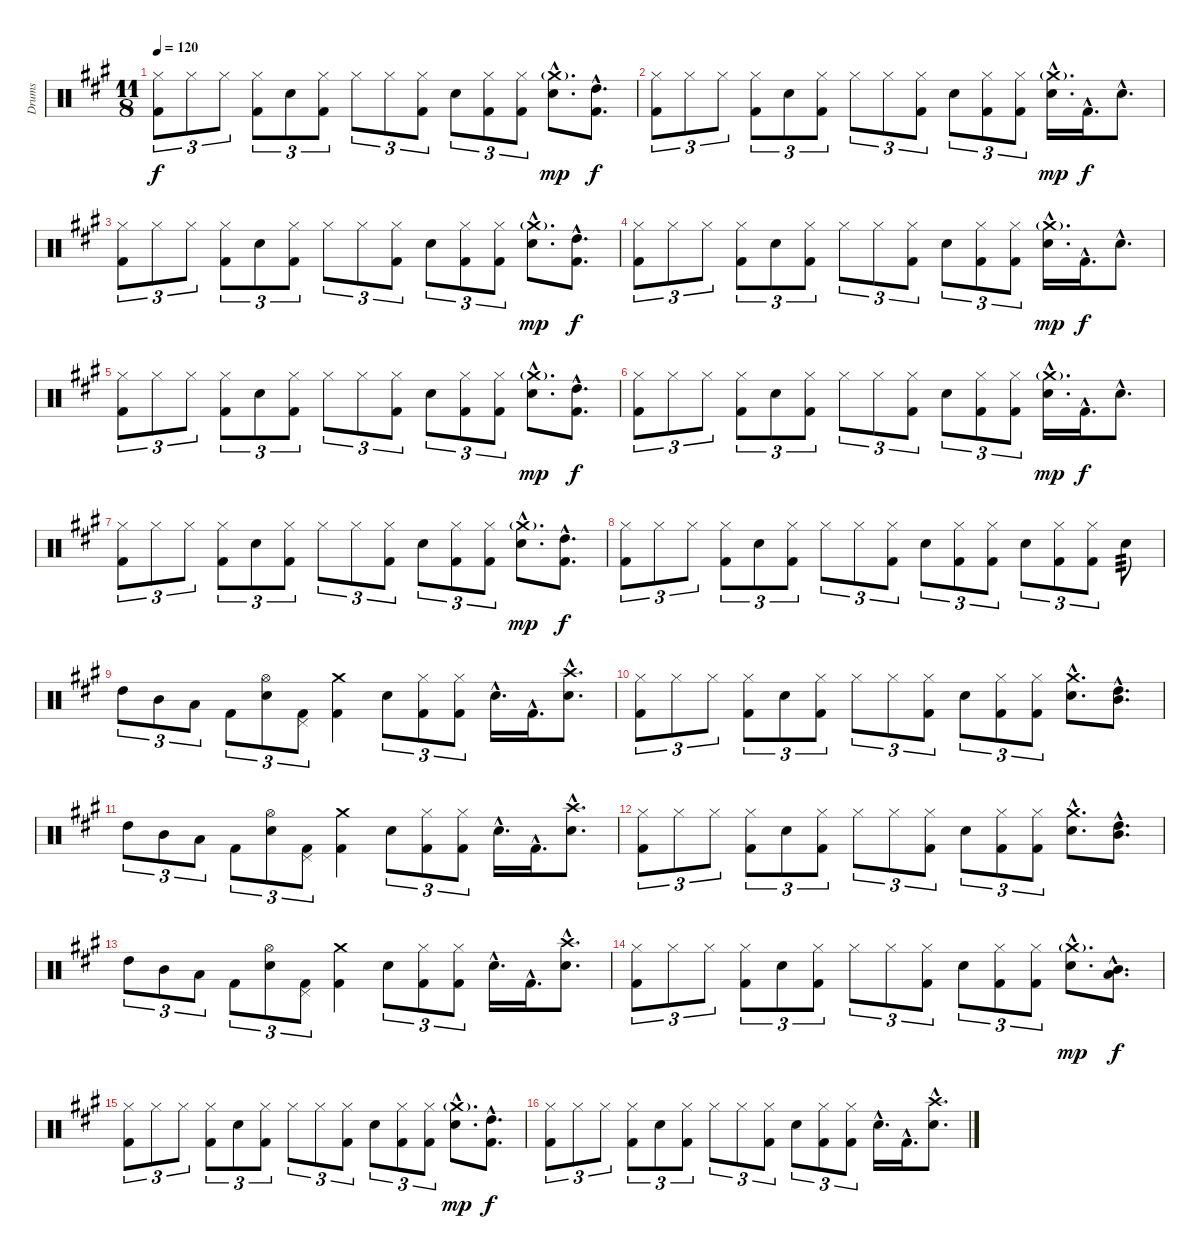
\track ("Drums" "Drums") {instrument percussion}
\staff {score}
\articulation defaults
\ts (11 8)
\tempo 120
\clef neutral
\ks a
("Hi-Hat (closed)" "Kick (hit) 2").8{tu (3 2) dy f} "Hi-Hat (closed)".8{tu (3 2)} "Hi-Hat (closed)".8{tu (3 2)} ("Hi-Hat (closed)" "Kick (hit) 2").8{tu (3 2)} "Electric Snare (hit)".8{tu (3 2)} ("Hi-Hat (closed)" "Kick (hit) 2").8{tu (3 2)} "Hi-Hat (closed)".8{tu (3 2)} "Hi-Hat (closed)".8{tu (3 2)} ("Hi-Hat (closed)" "Kick (hit) 2").8{tu (3 2)} "Electric Snare (hit)".8{tu (3 2)} ("Hi-Hat (closed)" "Kick (hit) 2").8{tu (3 2)} ("Hi-Hat (closed)" "Kick (hit) 2").8{tu (3 2)} ("Crash medium (hit)"{g hac} "Electric Snare (hit)"{hac}).8{d dy mp} ("High Tom (hit)"{hac} "Kick (hit) 2"{hac}).8{d dy f} |
("Hi-Hat (closed)" "Kick (hit) 2").8{tu (3 2)} "Hi-Hat (closed)".8{tu (3 2)} "Hi-Hat (closed)".8{tu (3 2)} ("Hi-Hat (closed)" "Kick (hit) 2").8{tu (3 2)} "Electric Snare (hit)".8{tu (3 2)} ("Hi-Hat (closed)" "Kick (hit) 2").8{tu (3 2)} "Hi-Hat (closed)".8{tu (3 2)} "Hi-Hat (closed)".8{tu (3 2)} ("Hi-Hat (closed)" "Kick (hit) 2").8{tu (3 2)} "Electric Snare (hit)".8{tu (3 2)} ("Hi-Hat (closed)" "Kick (hit) 2").8{tu (3 2)} ("Hi-Hat (closed)" "Kick (hit) 2").8{tu (3 2)} ("Crash medium (hit)"{g hac} "Electric Snare (hit)"{hac}).16{d dy mp} "Kick (hit) 2"{hac}.16{d dy f} "Electric Snare (hit)"{hac}.8{d} |
("Hi-Hat (closed)" "Kick (hit) 2").8{tu (3 2)} "Hi-Hat (closed)".8{tu (3 2)} "Hi-Hat (closed)".8{tu (3 2)} ("Hi-Hat (closed)" "Kick (hit) 2").8{tu (3 2)} "Electric Snare (hit)".8{tu (3 2)} ("Hi-Hat (closed)" "Kick (hit) 2").8{tu (3 2)} "Hi-Hat (closed)".8{tu (3 2)} "Hi-Hat (closed)".8{tu (3 2)} ("Hi-Hat (closed)" "Kick (hit) 2").8{tu (3 2)} "Electric Snare (hit)".8{tu (3 2)} ("Hi-Hat (closed)" "Kick (hit) 2").8{tu (3 2)} ("Hi-Hat (closed)" "Kick (hit) 2").8{tu (3 2)} ("Crash medium (hit)"{g hac} "Electric Snare (hit)"{hac}).8{d dy mp} ("High Tom (hit)"{hac} "Kick (hit) 2"{hac}).8{d dy f} |
("Hi-Hat (closed)" "Kick (hit) 2").8{tu (3 2)} "Hi-Hat (closed)".8{tu (3 2)} "Hi-Hat (closed)".8{tu (3 2)} ("Hi-Hat (closed)" "Kick (hit) 2").8{tu (3 2)} "Electric Snare (hit)".8{tu (3 2)} ("Hi-Hat (closed)" "Kick (hit) 2").8{tu (3 2)} "Hi-Hat (closed)".8{tu (3 2)} "Hi-Hat (closed)".8{tu (3 2)} ("Hi-Hat (closed)" "Kick (hit) 2").8{tu (3 2)} "Electric Snare (hit)".8{tu (3 2)} ("Hi-Hat (closed)" "Kick (hit) 2").8{tu (3 2)} ("Hi-Hat (closed)" "Kick (hit) 2").8{tu (3 2)} ("Crash medium (hit)"{g hac} "Electric Snare (hit)"{hac}).16{d dy mp} "Kick (hit) 2"{hac}.16{d dy f} "Electric Snare (hit)"{hac}.8{d} |
("Hi-Hat (closed)" "Kick (hit) 2").8{tu (3 2)} "Hi-Hat (closed)".8{tu (3 2)} "Hi-Hat (closed)".8{tu (3 2)} ("Hi-Hat (closed)" "Kick (hit) 2").8{tu (3 2)} "Electric Snare (hit)".8{tu (3 2)} ("Hi-Hat (closed)" "Kick (hit) 2").8{tu (3 2)} "Hi-Hat (closed)".8{tu (3 2)} "Hi-Hat (closed)".8{tu (3 2)} ("Hi-Hat (closed)" "Kick (hit) 2").8{tu (3 2)} "Electric Snare (hit)".8{tu (3 2)} ("Hi-Hat (closed)" "Kick (hit) 2").8{tu (3 2)} ("Hi-Hat (closed)" "Kick (hit) 2").8{tu (3 2)} ("Crash medium (hit)"{g hac} "Electric Snare (hit)"{hac}).8{d dy mp} ("High Tom (hit)"{hac} "Kick (hit) 2"{hac}).8{d dy f} |
("Hi-Hat (closed)" "Kick (hit) 2").8{tu (3 2)} "Hi-Hat (closed)".8{tu (3 2)} "Hi-Hat (closed)".8{tu (3 2)} ("Hi-Hat (closed)" "Kick (hit) 2").8{tu (3 2)} "Electric Snare (hit)".8{tu (3 2)} ("Hi-Hat (closed)" "Kick (hit) 2").8{tu (3 2)} "Hi-Hat (closed)".8{tu (3 2)} "Hi-Hat (closed)".8{tu (3 2)} ("Hi-Hat (closed)" "Kick (hit) 2").8{tu (3 2)} "Electric Snare (hit)".8{tu (3 2)} ("Hi-Hat (closed)" "Kick (hit) 2").8{tu (3 2)} ("Hi-Hat (closed)" "Kick (hit) 2").8{tu (3 2)} ("Crash medium (hit)"{g hac} "Electric Snare (hit)"{hac}).16{d dy mp} "Kick (hit) 2"{hac}.16{d dy f} "Electric Snare (hit)"{hac}.8{d} |
("Hi-Hat (closed)" "Kick (hit) 2").8{tu (3 2)} "Hi-Hat (closed)".8{tu (3 2)} "Hi-Hat (closed)".8{tu (3 2)} ("Hi-Hat (closed)" "Kick (hit) 2").8{tu (3 2)} "Electric Snare (hit)".8{tu (3 2)} ("Hi-Hat (closed)" "Kick (hit) 2").8{tu (3 2)} "Hi-Hat (closed)".8{tu (3 2)} "Hi-Hat (closed)".8{tu (3 2)} ("Hi-Hat (closed)" "Kick (hit) 2").8{tu (3 2)} "Electric Snare (hit)".8{tu (3 2)} ("Hi-Hat (closed)" "Kick (hit) 2").8{tu (3 2)} ("Hi-Hat (closed)" "Kick (hit) 2").8{tu (3 2)} ("Crash medium (hit)"{g hac} "Electric Snare (hit)"{hac}).8{d dy mp} ("High Tom (hit)"{hac} "Kick (hit) 2"{hac}).8{d dy f} |
("Hi-Hat (closed)" "Kick (hit) 2").8{tu (3 2)} "Hi-Hat (closed)".8{tu (3 2)} "Hi-Hat (closed)".8{tu (3 2)} ("Hi-Hat (closed)" "Kick (hit) 2").8{tu (3 2)} "Electric Snare (hit)".8{tu (3 2)} ("Hi-Hat (closed)" "Kick (hit) 2").8{tu (3 2)} "Hi-Hat (closed)".8{tu (3 2)} "Hi-Hat (closed)".8{tu (3 2)} ("Hi-Hat (closed)" "Kick (hit) 2").8{tu (3 2)} "Electric Snare (hit)".8{tu (3 2)} ("Hi-Hat (closed)" "Kick (hit) 2").8{tu (3 2)} ("Hi-Hat (closed)" "Kick (hit) 2").8{tu (3 2)} "Electric Snare (hit)".8{tu (3 2)} ("Hi-Hat (closed)" "Kick (hit) 2").8{tu (3 2)} ("Hi-Hat (closed)" "Kick (hit) 2").8{tu (3 2)} "Electric Snare (hit)".8{tp 3} |
"High Tom (hit)".8{tu (3 2)} "Mid Tom (hit)".8{tu (3 2)} "Low Tom (hit)".8{tu (3 2)} "Kick (hit) 2".8{tu (3 2)} ("Hi-Hat (open)" "Electric Snare (hit)").8{tu (3 2)} ("Pedal Hi-Hat (hit)" "Kick (hit) 2").8{tu (3 2)} ("Crash medium (hit)" "Kick (hit) 2").4 "Electric Snare (hit)".8{tu (3 2)} ("Hi-Hat (closed)" "Kick (hit) 2").8{tu (3 2)} ("Hi-Hat (closed)" "Kick (hit) 2").8{tu (3 2)} "Electric Snare (hit)"{hac}.16{d} "Kick (hit) 2"{hac}.16{d} ("Crash high (hit)"{hac} "Electric Snare (hit)"{hac}).8{d} |
("Hi-Hat (closed)" "Kick (hit) 2").8{tu (3 2)} "Hi-Hat (closed)".8{tu (3 2)} "Hi-Hat (closed)".8{tu (3 2)} ("Hi-Hat (closed)" "Kick (hit) 2").8{tu (3 2)} "Electric Snare (hit)".8{tu (3 2)} ("Hi-Hat (closed)" "Kick (hit) 2").8{tu (3 2)} "Hi-Hat (closed)".8{tu (3 2)} "Hi-Hat (closed)".8{tu (3 2)} ("Hi-Hat (closed)" "Kick (hit) 2").8{tu (3 2)} "Electric Snare (hit)".8{tu (3 2)} ("Hi-Hat (closed)" "Kick (hit) 2").8{tu (3 2)} ("Hi-Hat (closed)" "Kick (hit) 2").8{tu (3 2)} ("Crash medium (hit)"{hac} "Electric Snare (hit)"{hac}).8{d} ("High Tom (hit)"{hac} "Mid Tom (hit)"{hac}).8{d} |
"High Tom (hit)".8{tu (3 2)} "Mid Tom (hit)".8{tu (3 2)} "Low Tom (hit)".8{tu (3 2)} "Kick (hit) 2".8{tu (3 2)} ("Hi-Hat (open)" "Electric Snare (hit)").8{tu (3 2)} ("Pedal Hi-Hat (hit)" "Kick (hit) 2").8{tu (3 2)} ("Crash medium (hit)" "Kick (hit) 2").4 "Electric Snare (hit)".8{tu (3 2)} ("Hi-Hat (closed)" "Kick (hit) 2").8{tu (3 2)} ("Hi-Hat (closed)" "Kick (hit) 2").8{tu (3 2)} "Electric Snare (hit)"{hac}.16{d} "Kick (hit) 2"{hac}.16{d} ("Crash high (hit)"{hac} "Electric Snare (hit)"{hac}).8{d} |
("Hi-Hat (closed)" "Kick (hit) 2").8{tu (3 2)} "Hi-Hat (closed)".8{tu (3 2)} "Hi-Hat (closed)".8{tu (3 2)} ("Hi-Hat (closed)" "Kick (hit) 2").8{tu (3 2)} "Electric Snare (hit)".8{tu (3 2)} ("Hi-Hat (closed)" "Kick (hit) 2").8{tu (3 2)} "Hi-Hat (closed)".8{tu (3 2)} "Hi-Hat (closed)".8{tu (3 2)} ("Hi-Hat (closed)" "Kick (hit) 2").8{tu (3 2)} "Electric Snare (hit)".8{tu (3 2)} ("Hi-Hat (closed)" "Kick (hit) 2").8{tu (3 2)} ("Hi-Hat (closed)" "Kick (hit) 2").8{tu (3 2)} ("Crash medium (hit)"{hac} "Electric Snare (hit)"{hac}).8{d} ("High Tom (hit)"{hac} "Mid Tom (hit)"{hac}).8{d} |
"High Tom (hit)".8{tu (3 2)} "Mid Tom (hit)".8{tu (3 2)} "Low Tom (hit)".8{tu (3 2)} "Kick (hit) 2".8{tu (3 2)} ("Hi-Hat (open)" "Electric Snare (hit)").8{tu (3 2)} ("Pedal Hi-Hat (hit)" "Kick (hit) 2").8{tu (3 2)} ("Crash medium (hit)" "Kick (hit) 2").4 "Electric Snare (hit)".8{tu (3 2)} ("Hi-Hat (closed)" "Kick (hit) 2").8{tu (3 2)} ("Hi-Hat (closed)" "Kick (hit) 2").8{tu (3 2)} "Electric Snare (hit)"{hac}.16{d} "Kick (hit) 2"{hac}.16{d} ("Crash high (hit)"{hac} "Electric Snare (hit)"{hac}).8{d} |
("Hi-Hat (closed)" "Kick (hit) 2").8{tu (3 2)} "Hi-Hat (closed)".8{tu (3 2)} "Hi-Hat (closed)".8{tu (3 2)} ("Hi-Hat (closed)" "Kick (hit) 2").8{tu (3 2)} "Electric Snare (hit)".8{tu (3 2)} ("Hi-Hat (closed)" "Kick (hit) 2").8{tu (3 2)} "Hi-Hat (closed)".8{tu (3 2)} "Hi-Hat (closed)".8{tu (3 2)} ("Hi-Hat (closed)" "Kick (hit) 2").8{tu (3 2)} "Electric Snare (hit)".8{tu (3 2)} ("Hi-Hat (closed)" "Kick (hit) 2").8{tu (3 2)} ("Hi-Hat (closed)" "Kick (hit) 2").8{tu (3 2)} ("Crash medium (hit)"{g hac} "Electric Snare (hit)"{hac}).8{d dy mp} ("Mid Tom (hit)"{hac} "Low Tom (hit)"{hac}).8{d dy f} |
("Hi-Hat (closed)" "Kick (hit) 2").8{tu (3 2)} "Hi-Hat (closed)".8{tu (3 2)} "Hi-Hat (closed)".8{tu (3 2)} ("Hi-Hat (closed)" "Kick (hit) 2").8{tu (3 2)} "Electric Snare (hit)".8{tu (3 2)} ("Hi-Hat (closed)" "Kick (hit) 2").8{tu (3 2)} "Hi-Hat (closed)".8{tu (3 2)} "Hi-Hat (closed)".8{tu (3 2)} ("Hi-Hat (closed)" "Kick (hit) 2").8{tu (3 2)} "Electric Snare (hit)".8{tu (3 2)} ("Hi-Hat (closed)" "Kick (hit) 2").8{tu (3 2)} ("Hi-Hat (closed)" "Kick (hit) 2").8{tu (3 2)} ("Crash medium (hit)"{g hac} "Electric Snare (hit)"{hac}).8{d dy mp} ("High Tom (hit)"{hac} "Kick (hit) 2"{hac}).8{d dy f} |
("Hi-Hat (closed)" "Kick (hit) 2").8{tu (3 2)} "Hi-Hat (closed)".8{tu (3 2)} "Hi-Hat (closed)".8{tu (3 2)} ("Hi-Hat (closed)" "Kick (hit) 2").8{tu (3 2)} "Electric Snare (hit)".8{tu (3 2)} ("Hi-Hat (closed)" "Kick (hit) 2").8{tu (3 2)} "Hi-Hat (closed)".8{tu (3 2)} "Hi-Hat (closed)".8{tu (3 2)} ("Hi-Hat (closed)" "Kick (hit) 2").8{tu (3 2)} "Electric Snare (hit)".8{tu (3 2)} ("Hi-Hat (closed)" "Kick (hit) 2").8{tu (3 2)} ("Hi-Hat (closed)" "Kick (hit) 2").8{tu (3 2)} "Electric Snare (hit)"{hac}.16{d} "Kick (hit) 2"{hac}.16{d} ("Crash high (hit)"{hac} "Electric Snare (hit)"{hac}).8{d}
